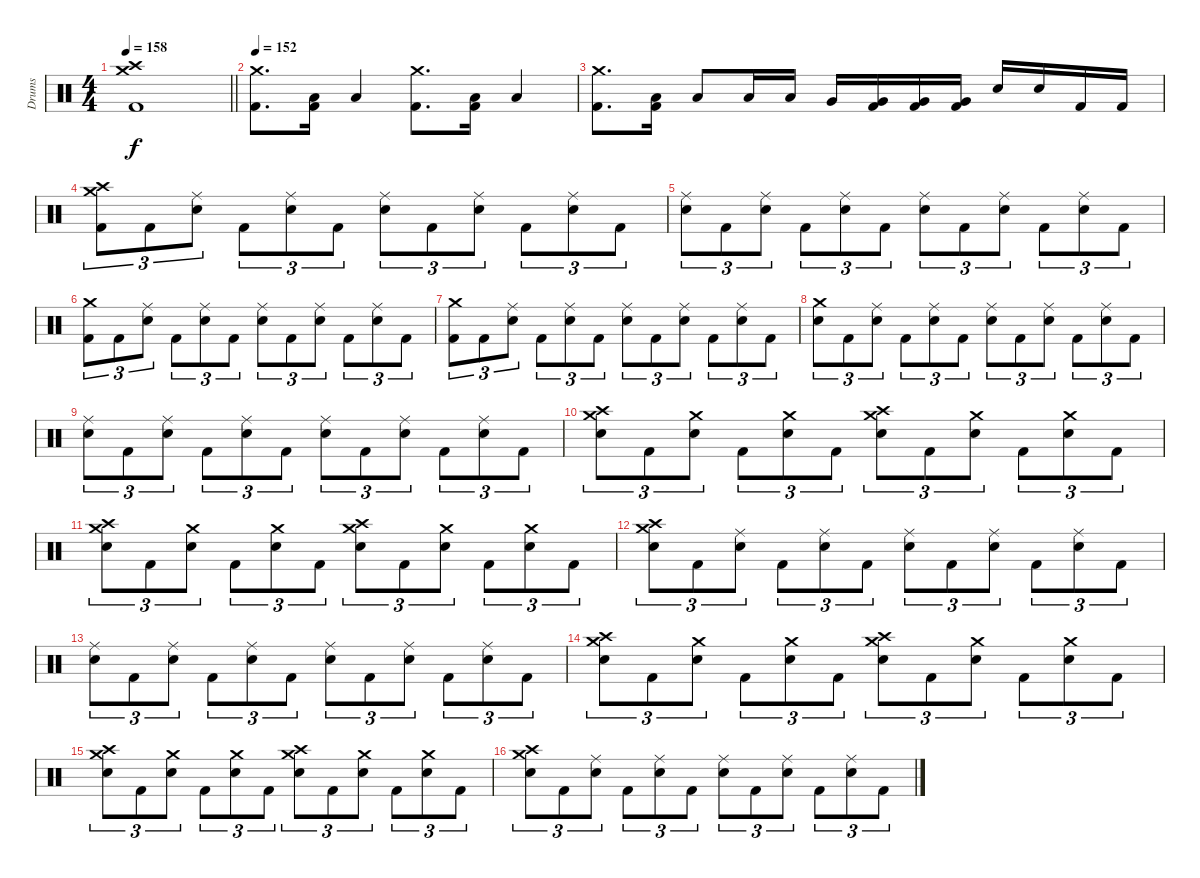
\track ("Drums" "Drums") {instrument percussion}
\staff {score}
\articulation defaults
\ts (4 4)
\tempo 158
\clef neutral
\barLineRight lightlight
\ks c
("Crash medium (hit)" "Crash high (hit)" "Kick (hit) 2").1{dy f} |
\section ("" "")
\tempo 152
("Crash medium (hit)" "Kick (hit) 2").8{d} ("Low Tom (hit)" "Kick (hit) 2").16 "Low Tom (hit)".4 ("Crash medium (hit)" "Kick (hit) 2").8{d} ("Low Tom (hit)" "Kick (hit) 2").16 "Low Tom (hit)".4 |
("Crash medium (hit)" "Kick (hit) 2").8{d} ("Low Tom (hit)" "Kick (hit) 2").16 "Low Tom (hit)".8 "Low Tom (hit)".16 "Low Tom (hit)".16 "Very Low Tom (hit)".16 ("Very Low Tom (hit)" "Kick (hit) 2").16 ("Very Low Tom (hit)" "Kick (hit) 2").16 ("Very Low Tom (hit)" "Kick (hit) 2").16 "Snare (hit) 2".16 "Snare (hit) 2".16 "Kick (hit) 2".16 "Kick (hit) 2".16 |
("Crash medium (hit)" "Crash high (hit)" "Kick (hit) 2").8{tu (3 2)} "Kick (hit) 2".8{tu (3 2)} ("Ride (middle)" "Snare (hit) 2").8{tu (3 2)} "Kick (hit) 2".8{tu (3 2)} ("Ride (middle)" "Snare (hit) 2").8{tu (3 2)} "Kick (hit) 2".8{tu (3 2)} ("Ride (middle)" "Snare (hit) 2").8{tu (3 2)} "Kick (hit) 2".8{tu (3 2)} ("Ride (middle)" "Snare (hit) 2").8{tu (3 2)} "Kick (hit) 2".8{tu (3 2)} ("Ride (middle)" "Snare (hit) 2").8{tu (3 2)} "Kick (hit) 2".8{tu (3 2)} |
("Ride (middle)" "Snare (hit) 2").8{tu (3 2)} "Kick (hit) 2".8{tu (3 2)} ("Ride (middle)" "Snare (hit) 2").8{tu (3 2)} "Kick (hit) 2".8{tu (3 2)} ("Ride (middle)" "Snare (hit) 2").8{tu (3 2)} "Kick (hit) 2".8{tu (3 2)} ("Ride (middle)" "Snare (hit) 2").8{tu (3 2)} "Kick (hit) 2".8{tu (3 2)} ("Ride (middle)" "Snare (hit) 2").8{tu (3 2)} "Kick (hit) 2".8{tu (3 2)} ("Ride (middle)" "Snare (hit) 2").8{tu (3 2)} "Kick (hit) 2".8{tu (3 2)} |
("Crash medium (hit)" "Kick (hit) 2").8{tu (3 2)} "Kick (hit) 2".8{tu (3 2)} ("Ride (middle)" "Snare (hit) 2").8{tu (3 2)} "Kick (hit) 2".8{tu (3 2)} ("Ride (middle)" "Snare (hit) 2").8{tu (3 2)} "Kick (hit) 2".8{tu (3 2)} ("Ride (middle)" "Snare (hit) 2").8{tu (3 2)} "Kick (hit) 2".8{tu (3 2)} ("Ride (middle)" "Snare (hit) 2").8{tu (3 2)} "Kick (hit) 2".8{tu (3 2)} ("Ride (middle)" "Snare (hit) 2").8{tu (3 2)} "Kick (hit) 2".8{tu (3 2)} |
("Crash medium (hit)" "Kick (hit) 2").8{tu (3 2)} "Kick (hit) 2".8{tu (3 2)} ("Ride (middle)" "Snare (hit) 2").8{tu (3 2)} "Kick (hit) 2".8{tu (3 2)} ("Ride (middle)" "Snare (hit) 2").8{tu (3 2)} "Kick (hit) 2".8{tu (3 2)} ("Ride (middle)" "Snare (hit) 2").8{tu (3 2)} "Kick (hit) 2".8{tu (3 2)} ("Ride (middle)" "Snare (hit) 2").8{tu (3 2)} "Kick (hit) 2".8{tu (3 2)} ("Ride (middle)" "Snare (hit) 2").8{tu (3 2)} "Kick (hit) 2".8{tu (3 2)} |
("Crash medium (hit)" "Snare (hit) 2").8{tu (3 2)} "Kick (hit) 2".8{tu (3 2)} ("Ride (middle)" "Snare (hit) 2").8{tu (3 2)} "Kick (hit) 2".8{tu (3 2)} ("Ride (middle)" "Snare (hit) 2").8{tu (3 2)} "Kick (hit) 2".8{tu (3 2)} ("Ride (middle)" "Snare (hit) 2").8{tu (3 2)} "Kick (hit) 2".8{tu (3 2)} ("Ride (middle)" "Snare (hit) 2").8{tu (3 2)} "Kick (hit) 2".8{tu (3 2)} ("Ride (middle)" "Snare (hit) 2").8{tu (3 2)} "Kick (hit) 2".8{tu (3 2)} |
("Ride (middle)" "Snare (hit) 2").8{tu (3 2)} "Kick (hit) 2".8{tu (3 2)} ("Ride (middle)" "Snare (hit) 2").8{tu (3 2)} "Kick (hit) 2".8{tu (3 2)} ("Ride (middle)" "Snare (hit) 2").8{tu (3 2)} "Kick (hit) 2".8{tu (3 2)} ("Ride (middle)" "Snare (hit) 2").8{tu (3 2)} "Kick (hit) 2".8{tu (3 2)} ("Ride (middle)" "Snare (hit) 2").8{tu (3 2)} "Kick (hit) 2".8{tu (3 2)} ("Ride (middle)" "Snare (hit) 2").8{tu (3 2)} "Kick (hit) 2".8{tu (3 2)} |
("Crash medium (hit)" "Crash high (hit)" "Snare (hit) 2").8{tu (3 2)} "Kick (hit) 2".8{tu (3 2)} ("Crash medium (hit)" "Snare (hit) 2").8{tu (3 2)} "Kick (hit) 2".8{tu (3 2)} ("Crash medium (hit)" "Snare (hit) 2").8{tu (3 2)} "Kick (hit) 2".8{tu (3 2)} ("Crash medium (hit)" "Crash high (hit)" "Snare (hit) 2").8{tu (3 2)} "Kick (hit) 2".8{tu (3 2)} ("Crash medium (hit)" "Snare (hit) 2").8{tu (3 2)} "Kick (hit) 2".8{tu (3 2)} ("Crash medium (hit)" "Snare (hit) 2").8{tu (3 2)} "Kick (hit) 2".8{tu (3 2)} |
("Crash medium (hit)" "Crash high (hit)" "Snare (hit) 2").8{tu (3 2)} "Kick (hit) 2".8{tu (3 2)} ("Crash medium (hit)" "Snare (hit) 2").8{tu (3 2)} "Kick (hit) 2".8{tu (3 2)} ("Crash medium (hit)" "Snare (hit) 2").8{tu (3 2)} "Kick (hit) 2".8{tu (3 2)} ("Crash medium (hit)" "Crash high (hit)" "Snare (hit) 2").8{tu (3 2)} "Kick (hit) 2".8{tu (3 2)} ("Crash medium (hit)" "Snare (hit) 2").8{tu (3 2)} "Kick (hit) 2".8{tu (3 2)} ("Crash medium (hit)" "Snare (hit) 2").8{tu (3 2)} "Kick (hit) 2".8{tu (3 2)} |
("Crash medium (hit)" "Crash high (hit)" "Snare (hit) 2").8{tu (3 2)} "Kick (hit) 2".8{tu (3 2)} ("Ride (middle)" "Snare (hit) 2").8{tu (3 2)} "Kick (hit) 2".8{tu (3 2)} ("Ride (middle)" "Snare (hit) 2").8{tu (3 2)} "Kick (hit) 2".8{tu (3 2)} ("Ride (middle)" "Snare (hit) 2").8{tu (3 2)} "Kick (hit) 2".8{tu (3 2)} ("Ride (middle)" "Snare (hit) 2").8{tu (3 2)} "Kick (hit) 2".8{tu (3 2)} ("Ride (middle)" "Snare (hit) 2").8{tu (3 2)} "Kick (hit) 2".8{tu (3 2)} |
("Ride (middle)" "Snare (hit) 2").8{tu (3 2)} "Kick (hit) 2".8{tu (3 2)} ("Ride (middle)" "Snare (hit) 2").8{tu (3 2)} "Kick (hit) 2".8{tu (3 2)} ("Ride (middle)" "Snare (hit) 2").8{tu (3 2)} "Kick (hit) 2".8{tu (3 2)} ("Ride (middle)" "Snare (hit) 2").8{tu (3 2)} "Kick (hit) 2".8{tu (3 2)} ("Ride (middle)" "Snare (hit) 2").8{tu (3 2)} "Kick (hit) 2".8{tu (3 2)} ("Ride (middle)" "Snare (hit) 2").8{tu (3 2)} "Kick (hit) 2".8{tu (3 2)} |
("Crash medium (hit)" "Crash high (hit)" "Snare (hit) 2").8{tu (3 2)} "Kick (hit) 2".8{tu (3 2)} ("Crash medium (hit)" "Snare (hit) 2").8{tu (3 2)} "Kick (hit) 2".8{tu (3 2)} ("Crash medium (hit)" "Snare (hit) 2").8{tu (3 2)} "Kick (hit) 2".8{tu (3 2)} ("Crash medium (hit)" "Crash high (hit)" "Snare (hit) 2").8{tu (3 2)} "Kick (hit) 2".8{tu (3 2)} ("Crash medium (hit)" "Snare (hit) 2").8{tu (3 2)} "Kick (hit) 2".8{tu (3 2)} ("Crash medium (hit)" "Snare (hit) 2").8{tu (3 2)} "Kick (hit) 2".8{tu (3 2)} |
("Crash medium (hit)" "Crash high (hit)" "Snare (hit) 2").8{tu (3 2)} "Kick (hit) 2".8{tu (3 2)} ("Crash medium (hit)" "Snare (hit) 2").8{tu (3 2)} "Kick (hit) 2".8{tu (3 2)} ("Crash medium (hit)" "Snare (hit) 2").8{tu (3 2)} "Kick (hit) 2".8{tu (3 2)} ("Crash medium (hit)" "Crash high (hit)" "Snare (hit) 2").8{tu (3 2)} "Kick (hit) 2".8{tu (3 2)} ("Crash medium (hit)" "Snare (hit) 2").8{tu (3 2)} "Kick (hit) 2".8{tu (3 2)} ("Crash medium (hit)" "Snare (hit) 2").8{tu (3 2)} "Kick (hit) 2".8{tu (3 2)} |
("Crash medium (hit)" "Crash high (hit)" "Snare (hit) 2").8{tu (3 2)} "Kick (hit) 2".8{tu (3 2)} ("Ride (middle)" "Snare (hit) 2").8{tu (3 2)} "Kick (hit) 2".8{tu (3 2)} ("Ride (middle)" "Snare (hit) 2").8{tu (3 2)} "Kick (hit) 2".8{tu (3 2)} ("Ride (middle)" "Snare (hit) 2").8{tu (3 2)} "Kick (hit) 2".8{tu (3 2)} ("Ride (middle)" "Snare (hit) 2").8{tu (3 2)} "Kick (hit) 2".8{tu (3 2)} ("Ride (middle)" "Snare (hit) 2").8{tu (3 2)} "Kick (hit) 2".8{tu (3 2)}
